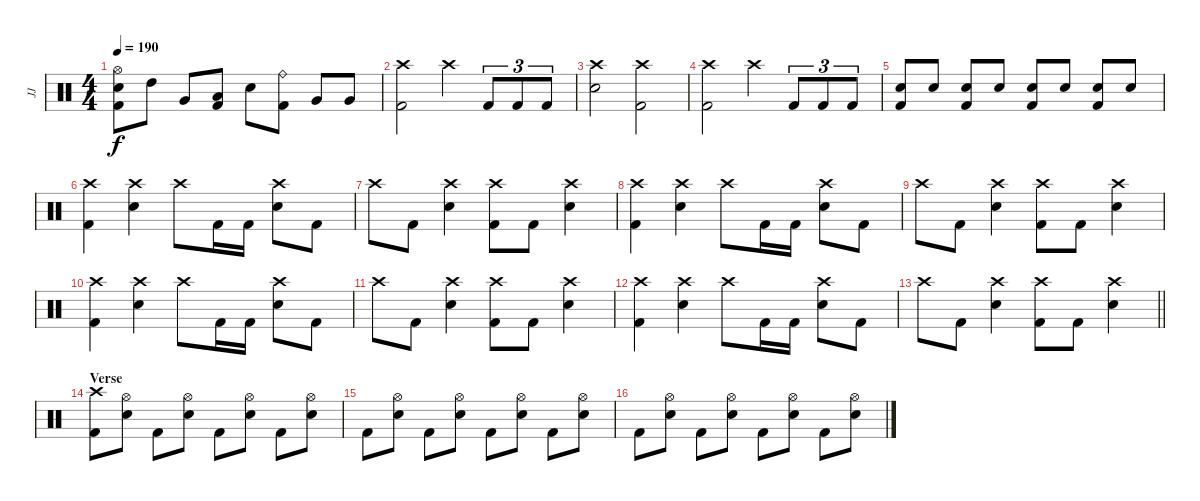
\track ("JJ" "JJ") {instrument percussion}
\staff {score}
\articulation defaults
\ts (4 4)
\tempo 190
\clef neutral
\ks c
("Hi-Hat (open)" "Electric Snare (hit)" "Kick (hit) 2").8{dy f} "High Tom (hit)".8 "Very Low Tom (hit)".8 ("Low Floor Tom (hit)" "Kick (hit) 2").8 "Electric Snare (hit)".8 ("Ride (bell)" "Kick (hit) 2").8 "Very Low Tom (hit)".8 "Very Low Tom (hit)".8 |
("Crash high (hit)" "Kick (hit) 2").2 "Crash high (hit)".4 "Kick (hit) 2".8{tu (3 2)} "Kick (hit) 2".8{tu (3 2)} "Kick (hit) 2".8{tu (3 2)} |
("Crash high (hit)" "Electric Snare (hit)").2 ("Crash high (hit)" "Kick (hit) 2").2 |
("Crash high (hit)" "Kick (hit) 2").2 "Crash high (hit)".4 "Kick (hit) 2".8{tu (3 2)} "Kick (hit) 2".8{tu (3 2)} "Kick (hit) 2".8{tu (3 2)} |
("Electric Snare (hit)" "Kick (hit) 2").8 "Electric Snare (hit)".8 ("Electric Snare (hit)" "Kick (hit) 2").8 "Electric Snare (hit)".8 ("Electric Snare (hit)" "Kick (hit) 2").8 "Electric Snare (hit)".8 ("Electric Snare (hit)" "Kick (hit) 2").8 "Electric Snare (hit)".8 |
("Crash high (hit)" "Kick (hit) 2").4 ("Crash high (hit)" "Electric Snare (hit)").4 "Crash high (hit)".8 "Kick (hit) 2".16 "Kick (hit) 2".16 ("Crash high (hit)" "Electric Snare (hit)").8 "Kick (hit) 2".8 |
"Crash high (hit)".8 "Kick (hit) 2".8 ("Crash high (hit)" "Electric Snare (hit)").4 ("Crash high (hit)" "Kick (hit) 2").8 "Kick (hit) 2".8 ("Crash high (hit)" "Electric Snare (hit)").4 |
("Crash high (hit)" "Kick (hit) 2").4 ("Crash high (hit)" "Electric Snare (hit)").4 "Crash high (hit)".8 "Kick (hit) 2".16 "Kick (hit) 2".16 ("Crash high (hit)" "Electric Snare (hit)").8 "Kick (hit) 2".8 |
"Crash high (hit)".8 "Kick (hit) 2".8 ("Crash high (hit)" "Electric Snare (hit)").4 ("Crash high (hit)" "Kick (hit) 2").8 "Kick (hit) 2".8 ("Crash high (hit)" "Electric Snare (hit)").4 |
("Crash high (hit)" "Kick (hit) 2").4 ("Crash high (hit)" "Electric Snare (hit)").4 "Crash high (hit)".8 "Kick (hit) 2".16 "Kick (hit) 2".16 ("Crash high (hit)" "Electric Snare (hit)").8 "Kick (hit) 2".8 |
"Crash high (hit)".8 "Kick (hit) 2".8 ("Crash high (hit)" "Electric Snare (hit)").4 ("Crash high (hit)" "Kick (hit) 2").8 "Kick (hit) 2".8 ("Crash high (hit)" "Electric Snare (hit)").4 |
("Crash high (hit)" "Kick (hit) 2").4 ("Crash high (hit)" "Electric Snare (hit)").4 "Crash high (hit)".8 "Kick (hit) 2".16 "Kick (hit) 2".16 ("Crash high (hit)" "Electric Snare (hit)").8 "Kick (hit) 2".8 |
\barLineRight lightlight "Crash high (hit)".8 "Kick (hit) 2".8
("Crash high (hit)" "Electric Snare (hit)").4 ("Crash high (hit)" "Kick (hit) 2").8 "Kick (hit) 2".8 ("Crash high (hit)" "Electric Snare (hit)").4 |
\section ("" "Verse")
("Crash high (hit)" "Kick (hit) 2").8 ("Hi-Hat (open)" "Electric Snare (hit)").8 "Kick (hit) 2".8 ("Hi-Hat (open)" "Electric Snare (hit)").8 "Kick (hit) 2".8 ("Hi-Hat (open)" "Electric Snare (hit)").8 "Kick (hit) 2".8 ("Hi-Hat (open)" "Electric Snare (hit)").8 |
"Kick (hit) 2".8 ("Hi-Hat (open)" "Electric Snare (hit)").8 "Kick (hit) 2".8 ("Hi-Hat (open)" "Electric Snare (hit)").8 "Kick (hit) 2".8 ("Hi-Hat (open)" "Electric Snare (hit)").8 "Kick (hit) 2".8 ("Hi-Hat (open)" "Electric Snare (hit)").8 |
"Kick (hit) 2".8 ("Hi-Hat (open)" "Electric Snare (hit)").8 "Kick (hit) 2".8 ("Hi-Hat (open)" "Electric Snare (hit)").8 "Kick (hit) 2".8 ("Hi-Hat (open)" "Electric Snare (hit)").8 "Kick (hit) 2".8 ("Hi-Hat (open)" "Electric Snare (hit)").8
